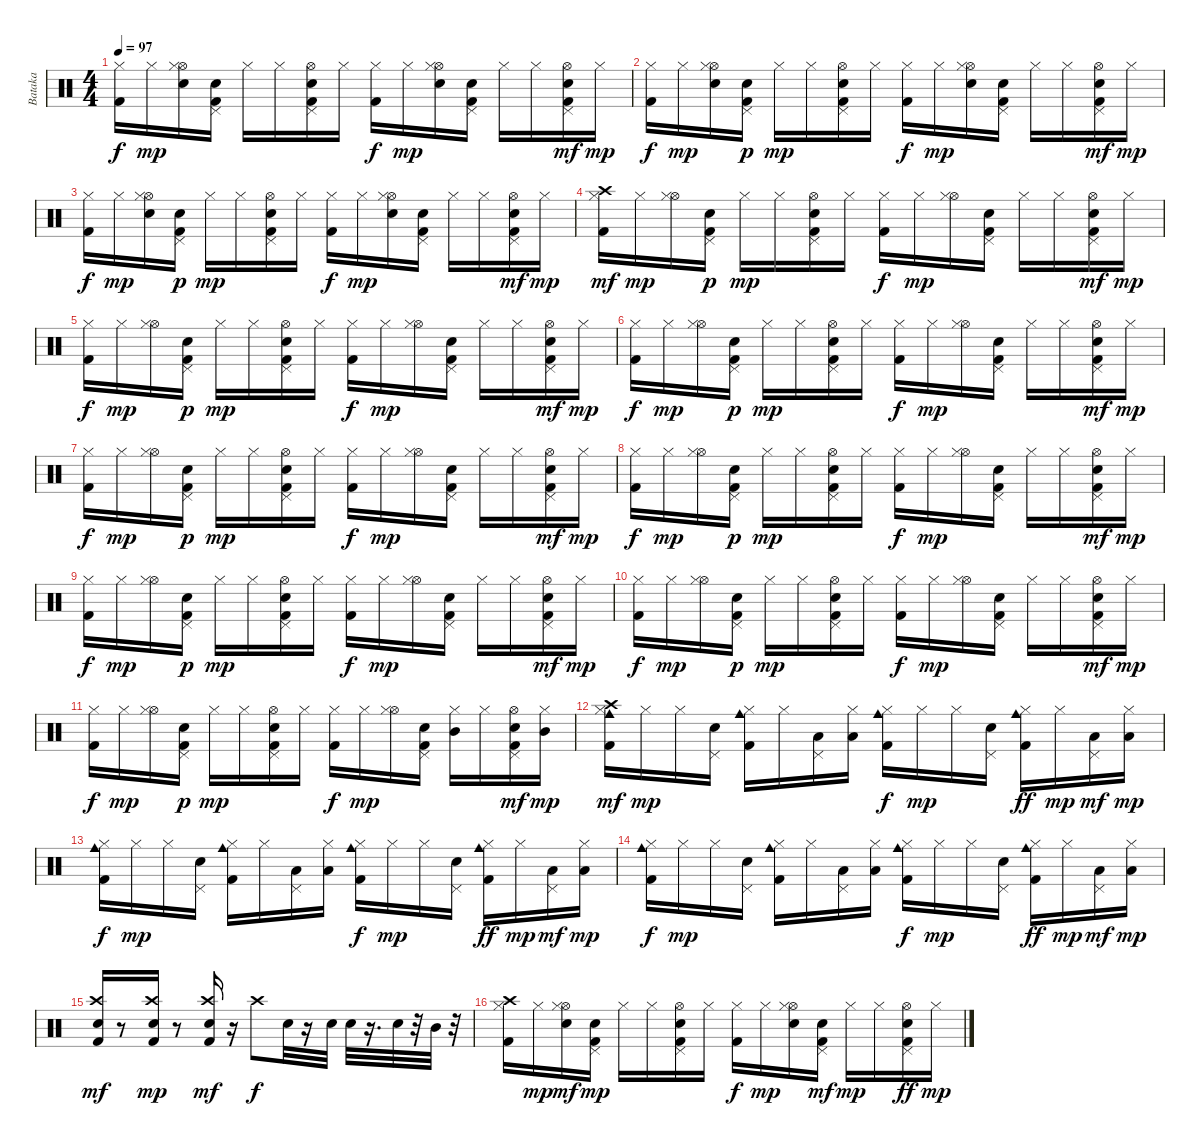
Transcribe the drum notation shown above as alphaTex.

\track ("Bataka" "Bataka") {instrument percussion}
\staff {score}
\articulation defaults
\ts (4 4)
\tempo 97
\clef neutral
\ks c
("Kick (hit) 2" "Hi-Hat (closed)").16{dy f} "Hi-Hat (closed)".16{dy mp} ("Hi-Hat (open)" "Hi-Hat (closed)" "Electric Snare (hit)").16 ("Pedal Hi-Hat (hit)" "Kick (hit) 2" "Electric Snare (hit)").16 "Hi-Hat (closed)".16 "Hi-Hat (closed)".16 ("Hi-Hat (open)" "Kick (hit) 2" "Pedal Hi-Hat (hit)" "Electric Snare (hit)").16 "Hi-Hat (closed)".16 ("Kick (hit) 2" "Hi-Hat (closed)").16{dy f} "Hi-Hat (closed)".16{dy mp} ("Electric Snare (hit)" "Hi-Hat (open)" "Hi-Hat (closed)").16 ("Electric Snare (hit)" "Pedal Hi-Hat (hit)" "Kick (hit) 2").16 "Hi-Hat (closed)".16 "Hi-Hat (closed)".16 ("Electric Snare (hit)" "Hi-Hat (open)" "Pedal Hi-Hat (hit)" "Kick (hit) 2").16{dy mf} "Hi-Hat (closed)".16{dy mp} |
("Kick (hit) 2" "Hi-Hat (closed)").16{dy f} "Hi-Hat (closed)".16{dy mp} ("Electric Snare (hit)" "Hi-Hat (open)" "Hi-Hat (closed)").16 ("Electric Snare (hit)" "Pedal Hi-Hat (hit)" "Kick (hit) 2").16{dy p} "Hi-Hat (closed)".16{dy mp} "Hi-Hat (closed)".16 ("Hi-Hat (open)" "Kick (hit) 2" "Pedal Hi-Hat (hit)" "Electric Snare (hit)").16 "Hi-Hat (closed)".16 ("Kick (hit) 2" "Hi-Hat (closed)").16{dy f} "Hi-Hat (closed)".16{dy mp} ("Electric Snare (hit)" "Hi-Hat (open)" "Hi-Hat (closed)").16 ("Electric Snare (hit)" "Pedal Hi-Hat (hit)" "Kick (hit) 2").16 "Hi-Hat (closed)".16 "Hi-Hat (closed)".16 ("Hi-Hat (open)" "Pedal Hi-Hat (hit)" "Kick (hit) 2" "Electric Snare (hit)").16{dy mf} "Hi-Hat (closed)".16{dy mp} |
("Kick (hit) 2" "Hi-Hat (closed)").16{dy f} "Hi-Hat (closed)".16{dy mp} ("Electric Snare (hit)" "Hi-Hat (open)" "Hi-Hat (closed)").16 ("Electric Snare (hit)" "Pedal Hi-Hat (hit)" "Kick (hit) 2").16{dy p} "Hi-Hat (closed)".16{dy mp} "Hi-Hat (closed)".16 ("Electric Snare (hit)" "Hi-Hat (open)" "Kick (hit) 2" "Pedal Hi-Hat (hit)").16 "Hi-Hat (closed)".16 ("Kick (hit) 2" "Hi-Hat (closed)").16{dy f} "Hi-Hat (closed)".16{dy mp} ("Hi-Hat (open)" "Hi-Hat (closed)" "Electric Snare (hit)").16 ("Pedal Hi-Hat (hit)" "Kick (hit) 2" "Electric Snare (hit)").16 "Hi-Hat (closed)".16 "Hi-Hat (closed)".16 ("Electric Snare (hit)" "Hi-Hat (open)" "Pedal Hi-Hat (hit)" "Kick (hit) 2").16{dy mf} "Hi-Hat (closed)".16{dy mp} |
("Crash high (hit)" "Kick (hit) 2" "Hi-Hat (closed)").16{dy mf} "Hi-Hat (closed)".16{dy mp} ("Hi-Hat (open)" "Hi-Hat (closed)").16 ("Pedal Hi-Hat (hit)" "Kick (hit) 2" "Electric Snare (hit)").16{dy p} "Hi-Hat (closed)".16{dy mp} "Hi-Hat (closed)".16 ("Hi-Hat (open)" "Kick (hit) 2" "Pedal Hi-Hat (hit)" "Electric Snare (hit)").16 "Hi-Hat (closed)".16 ("Kick (hit) 2" "Hi-Hat (closed)").16{dy f} "Hi-Hat (closed)".16{dy mp} ("Hi-Hat (open)" "Hi-Hat (closed)").16 ("Electric Snare (hit)" "Pedal Hi-Hat (hit)" "Kick (hit) 2").16 "Hi-Hat (closed)".16 "Hi-Hat (closed)".16 ("Hi-Hat (open)" "Electric Snare (hit)" "Pedal Hi-Hat (hit)" "Kick (hit) 2").16{dy mf} "Hi-Hat (closed)".16{dy mp} |
("Kick (hit) 2" "Hi-Hat (closed)").16{dy f} "Hi-Hat (closed)".16{dy mp} ("Hi-Hat (open)" "Hi-Hat (closed)").16 ("Pedal Hi-Hat (hit)" "Kick (hit) 2" "Electric Snare (hit)").16{dy p} "Hi-Hat (closed)".16{dy mp} "Hi-Hat (closed)".16 ("Hi-Hat (open)" "Kick (hit) 2" "Pedal Hi-Hat (hit)" "Electric Snare (hit)").16 "Hi-Hat (closed)".16 ("Kick (hit) 2" "Hi-Hat (closed)").16{dy f} "Hi-Hat (closed)".16{dy mp} ("Hi-Hat (open)" "Hi-Hat (closed)").16 ("Electric Snare (hit)" "Pedal Hi-Hat (hit)" "Kick (hit) 2").16 "Hi-Hat (closed)".16 "Hi-Hat (closed)".16 ("Hi-Hat (open)" "Electric Snare (hit)" "Pedal Hi-Hat (hit)" "Kick (hit) 2").16{dy mf} "Hi-Hat (closed)".16{dy mp} |
("Kick (hit) 2" "Hi-Hat (closed)").16{dy f} "Hi-Hat (closed)".16{dy mp} ("Hi-Hat (open)" "Hi-Hat (closed)").16 ("Pedal Hi-Hat (hit)" "Kick (hit) 2" "Electric Snare (hit)").16{dy p} "Hi-Hat (closed)".16{dy mp} "Hi-Hat (closed)".16 ("Hi-Hat (open)" "Kick (hit) 2" "Pedal Hi-Hat (hit)" "Electric Snare (hit)").16 "Hi-Hat (closed)".16 ("Kick (hit) 2" "Hi-Hat (closed)").16{dy f} "Hi-Hat (closed)".16{dy mp} ("Hi-Hat (open)" "Hi-Hat (closed)").16 ("Electric Snare (hit)" "Pedal Hi-Hat (hit)" "Kick (hit) 2").16 "Hi-Hat (closed)".16 "Hi-Hat (closed)".16 ("Hi-Hat (open)" "Electric Snare (hit)" "Pedal Hi-Hat (hit)" "Kick (hit) 2").16{dy mf} "Hi-Hat (closed)".16{dy mp} |
("Kick (hit) 2" "Hi-Hat (closed)").16{dy f} "Hi-Hat (closed)".16{dy mp} ("Hi-Hat (open)" "Hi-Hat (closed)").16 ("Pedal Hi-Hat (hit)" "Kick (hit) 2" "Electric Snare (hit)").16{dy p} "Hi-Hat (closed)".16{dy mp} "Hi-Hat (closed)".16 ("Hi-Hat (open)" "Kick (hit) 2" "Pedal Hi-Hat (hit)" "Electric Snare (hit)").16 "Hi-Hat (closed)".16 ("Kick (hit) 2" "Hi-Hat (closed)").16{dy f} "Hi-Hat (closed)".16{dy mp} ("Hi-Hat (open)" "Hi-Hat (closed)").16 ("Electric Snare (hit)" "Pedal Hi-Hat (hit)" "Kick (hit) 2").16 "Hi-Hat (closed)".16 "Hi-Hat (closed)".16 ("Hi-Hat (open)" "Electric Snare (hit)" "Pedal Hi-Hat (hit)" "Kick (hit) 2").16{dy mf} "Hi-Hat (closed)".16{dy mp} |
("Kick (hit) 2" "Hi-Hat (closed)").16{dy f} "Hi-Hat (closed)".16{dy mp} ("Hi-Hat (open)" "Hi-Hat (closed)").16 ("Pedal Hi-Hat (hit)" "Kick (hit) 2" "Electric Snare (hit)").16{dy p} "Hi-Hat (closed)".16{dy mp} "Hi-Hat (closed)".16 ("Hi-Hat (open)" "Kick (hit) 2" "Pedal Hi-Hat (hit)" "Electric Snare (hit)").16 "Hi-Hat (closed)".16 ("Kick (hit) 2" "Hi-Hat (closed)").16{dy f} "Hi-Hat (closed)".16{dy mp} ("Hi-Hat (open)" "Hi-Hat (closed)").16 ("Electric Snare (hit)" "Pedal Hi-Hat (hit)" "Kick (hit) 2").16 "Hi-Hat (closed)".16 "Hi-Hat (closed)".16 ("Hi-Hat (open)" "Electric Snare (hit)" "Pedal Hi-Hat (hit)" "Kick (hit) 2").16{dy mf} "Hi-Hat (closed)".16{dy mp} |
("Kick (hit) 2" "Hi-Hat (closed)").16{dy f} "Hi-Hat (closed)".16{dy mp} ("Hi-Hat (open)" "Hi-Hat (closed)").16 ("Pedal Hi-Hat (hit)" "Kick (hit) 2" "Electric Snare (hit)").16{dy p} "Hi-Hat (closed)".16{dy mp} "Hi-Hat (closed)".16 ("Hi-Hat (open)" "Kick (hit) 2" "Pedal Hi-Hat (hit)" "Electric Snare (hit)").16 "Hi-Hat (closed)".16 ("Kick (hit) 2" "Hi-Hat (closed)").16{dy f} "Hi-Hat (closed)".16{dy mp} ("Hi-Hat (open)" "Hi-Hat (closed)").16 ("Electric Snare (hit)" "Pedal Hi-Hat (hit)" "Kick (hit) 2").16 "Hi-Hat (closed)".16 "Hi-Hat (closed)".16 ("Hi-Hat (open)" "Electric Snare (hit)" "Pedal Hi-Hat (hit)" "Kick (hit) 2").16{dy mf} "Hi-Hat (closed)".16{dy mp} |
("Kick (hit) 2" "Hi-Hat (closed)").16{dy f} "Hi-Hat (closed)".16{dy mp} ("Hi-Hat (open)" "Hi-Hat (closed)").16 ("Pedal Hi-Hat (hit)" "Kick (hit) 2" "Electric Snare (hit)").16{dy p} "Hi-Hat (closed)".16{dy mp} "Hi-Hat (closed)".16 ("Hi-Hat (open)" "Kick (hit) 2" "Pedal Hi-Hat (hit)" "Electric Snare (hit)").16 "Hi-Hat (closed)".16 ("Kick (hit) 2" "Hi-Hat (closed)").16{dy f} "Hi-Hat (closed)".16{dy mp} ("Hi-Hat (open)" "Hi-Hat (closed)").16 ("Electric Snare (hit)" "Pedal Hi-Hat (hit)" "Kick (hit) 2").16 "Hi-Hat (closed)".16 "Hi-Hat (closed)".16 ("Hi-Hat (open)" "Electric Snare (hit)" "Pedal Hi-Hat (hit)" "Kick (hit) 2").16{dy mf} "Hi-Hat (closed)".16{dy mp} |
("Kick (hit) 2" "Hi-Hat (closed)").16{dy f} "Hi-Hat (closed)".16{dy mp} ("Hi-Hat (open)" "Hi-Hat (closed)").16 ("Pedal Hi-Hat (hit)" "Kick (hit) 2" "Electric Snare (hit)").16{dy p} "Hi-Hat (closed)".16{dy mp} "Hi-Hat (closed)".16 ("Hi-Hat (open)" "Kick (hit) 2" "Pedal Hi-Hat (hit)" "Electric Snare (hit)").16 "Hi-Hat (closed)".16 ("Kick (hit) 2" "Hi-Hat (closed)").16{dy f} "Hi-Hat (closed)".16{dy mp} ("Hi-Hat (open)" "Hi-Hat (closed)").16 ("Electric Snare (hit)" "Pedal Hi-Hat (hit)" "Kick (hit) 2").16 ("Mid Tom (hit)" "Hi-Hat (closed)").16 "Hi-Hat (closed)".16 ("Hi-Hat (open)" "Electric Snare (hit)" "Pedal Hi-Hat (hit)" "Kick (hit) 2").16{dy mf} ("Mid Tom (hit)" "Hi-Hat (closed)").16{dy mp} |
("Crash high (hit)" "Cowbell medium (hit)" "Kick (hit) 2" "Hi-Hat (closed)").16{dy mf} "Hi-Hat (closed)".16{dy mp} "Hi-Hat (closed)".16 ("Electric Snare (hit)" "Pedal Hi-Hat (hit)").16 ("Kick (hit) 2" "Cowbell medium (hit)" "Hi-Hat (closed)").16 "Hi-Hat (closed)".16 ("Low Tom (hit)" "Pedal Hi-Hat (hit)").16 ("Low Tom (hit)" "Hi-Hat (closed)").16 ("Kick (hit) 2" "Cowbell medium (hit)" "Hi-Hat (closed)").16{dy f} "Hi-Hat (closed)".16{dy mp} "Hi-Hat (closed)".16 ("Electric Snare (hit)" "Pedal Hi-Hat (hit)").16 ("Kick (hit) 2" "Hi-Hat (closed)" "Cowbell medium (hit)").16{dy ff} "Hi-Hat (closed)".16{dy mp} ("Low Tom (hit)" "Pedal Hi-Hat (hit)").16{dy mf} ("Low Tom (hit)" "Hi-Hat (closed)").16{dy mp} |
("Cowbell medium (hit)" "Kick (hit) 2" "Hi-Hat (closed)").16{dy f} "Hi-Hat (closed)".16{dy mp} "Hi-Hat (closed)".16 ("Electric Snare (hit)" "Pedal Hi-Hat (hit)").16 ("Kick (hit) 2" "Cowbell medium (hit)" "Hi-Hat (closed)").16 "Hi-Hat (closed)".16 ("Low Tom (hit)" "Pedal Hi-Hat (hit)").16 ("Low Tom (hit)" "Hi-Hat (closed)").16 ("Kick (hit) 2" "Cowbell medium (hit)" "Hi-Hat (closed)").16{dy f} "Hi-Hat (closed)".16{dy mp} "Hi-Hat (closed)".16 ("Electric Snare (hit)" "Pedal Hi-Hat (hit)").16 ("Kick (hit) 2" "Hi-Hat (closed)" "Cowbell medium (hit)").16{dy ff} "Hi-Hat (closed)".16{dy mp} ("Low Tom (hit)" "Pedal Hi-Hat (hit)").16{dy mf} ("Low Tom (hit)" "Hi-Hat (closed)").16{dy mp} |
("Cowbell medium (hit)" "Kick (hit) 2" "Hi-Hat (closed)").16{dy f} "Hi-Hat (closed)".16{dy mp} "Hi-Hat (closed)".16 ("Electric Snare (hit)" "Pedal Hi-Hat (hit)").16 ("Kick (hit) 2" "Cowbell medium (hit)" "Hi-Hat (closed)").16 "Hi-Hat (closed)".16 ("Low Tom (hit)" "Pedal Hi-Hat (hit)").16 ("Low Tom (hit)" "Hi-Hat (closed)").16 ("Kick (hit) 2" "Cowbell medium (hit)" "Hi-Hat (closed)").16{dy f} "Hi-Hat (closed)".16{dy mp} "Hi-Hat (closed)".16 ("Electric Snare (hit)" "Pedal Hi-Hat (hit)").16 ("Kick (hit) 2" "Hi-Hat (closed)" "Cowbell medium (hit)").16{dy ff} "Hi-Hat (closed)".16{dy mp} ("Low Tom (hit)" "Pedal Hi-Hat (hit)").16{dy mf} ("Low Tom (hit)" "Hi-Hat (closed)").16{dy mp} |
("Crash high (hit)" "Kick (hit) 2" "Snare (hit) 2").16{dy mf} r.8 ("Kick (hit) 2" "Snare (hit) 2" "Crash high (hit)").16{dy mp} r.8 ("Crash high (hit)" "Kick (hit) 2" "Snare (hit) 2").16{dy mf} r.16 "Crash high (hit)".8{dy f} "Snare (hit) 2".32 r.16 "Snare (hit) 2".32 "Snare (hit) 2".32 r.16{d} "Snare (hit) 2".32 r.32 "Mid Tom (hit)".32 r.32 |
("Crash high (hit)" "Kick (hit) 2" "Hi-Hat (closed)").16 "Hi-Hat (closed)".16{dy mp} ("Hi-Hat (open)" "Hi-Hat (closed)" "Electric Snare (hit)").16{dy mf} ("Pedal Hi-Hat (hit)" "Kick (hit) 2" "Electric Snare (hit)").16{dy mp} "Hi-Hat (closed)".16 "Hi-Hat (closed)".16 ("Electric Snare (hit)" "Hi-Hat (open)" "Kick (hit) 2" "Pedal Hi-Hat (hit)").16 "Hi-Hat (closed)".16 ("Kick (hit) 2" "Hi-Hat (closed)").16{dy f} "Hi-Hat (closed)".16{dy mp} ("Hi-Hat (open)" "Hi-Hat (closed)" "Electric Snare (hit)").16 ("Pedal Hi-Hat (hit)" "Kick (hit) 2" "Electric Snare (hit)").16{dy mf} "Hi-Hat (closed)".16{dy mp} "Hi-Hat (closed)".16 ("Hi-Hat (open)" "Pedal Hi-Hat (hit)" "Kick (hit) 2" "Electric Snare (hit)").16{dy ff} "Hi-Hat (closed)".16{dy mp}
